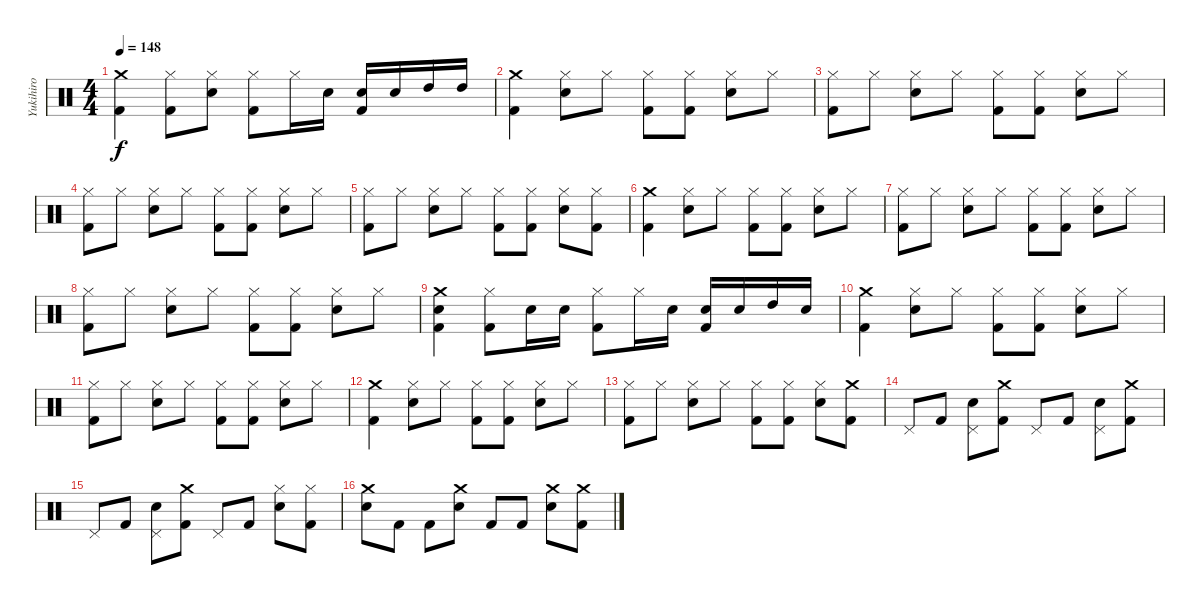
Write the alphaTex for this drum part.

\track ("Yukihiro" "Yukihiro") {instrument percussion}
\staff {score}
\articulation defaults
\ts (4 4)
\tempo 148
\clef neutral
\ks c
("Crash medium (hit)" "Kick (hit) 2").4{dy f} ("Hi-Hat (closed)" "Kick (hit) 2").8 ("Hi-Hat (closed)" "Snare (hit) 2").8 ("Hi-Hat (closed)" "Kick (hit) 2").8 "Hi-Hat (closed)".16 "Snare (hit) 2".16 ("Snare (hit) 2" "Kick (hit) 2").16 "Snare (hit) 2".16 "High Tom (hit)".16 "High Tom (hit)".16 |
("Crash medium (hit)" "Kick (hit) 2").4 ("Hi-Hat (closed)" "Snare (hit) 2").8 "Hi-Hat (closed)".8 ("Hi-Hat (closed)" "Kick (hit) 2").8 ("Hi-Hat (closed)" "Kick (hit) 2").8 ("Hi-Hat (closed)" "Snare (hit) 2").8 "Hi-Hat (closed)".8 |
("Hi-Hat (closed)" "Kick (hit) 2").8 "Hi-Hat (closed)".8 ("Hi-Hat (closed)" "Snare (hit) 2").8 "Hi-Hat (closed)".8 ("Hi-Hat (closed)" "Kick (hit) 2").8 ("Hi-Hat (closed)" "Kick (hit) 2").8 ("Hi-Hat (closed)" "Snare (hit) 2").8 "Hi-Hat (closed)".8 |
("Hi-Hat (closed)" "Kick (hit) 2").8 "Hi-Hat (closed)".8 ("Hi-Hat (closed)" "Snare (hit) 2").8 "Hi-Hat (closed)".8 ("Hi-Hat (closed)" "Kick (hit) 2").8 ("Hi-Hat (closed)" "Kick (hit) 2").8 ("Hi-Hat (closed)" "Snare (hit) 2").8 "Hi-Hat (closed)".8 |
("Hi-Hat (closed)" "Kick (hit) 2").8 "Hi-Hat (closed)".8 ("Hi-Hat (closed)" "Snare (hit) 2").8 "Hi-Hat (closed)".8 ("Hi-Hat (closed)" "Kick (hit) 2").8 ("Hi-Hat (closed)" "Kick (hit) 2").8 ("Hi-Hat (closed)" "Snare (hit) 2").8 ("Hi-Hat (closed)" "Kick (hit) 2").8 |
("Crash medium (hit)" "Kick (hit) 2").4 ("Hi-Hat (closed)" "Snare (hit) 2").8 "Hi-Hat (closed)".8 ("Hi-Hat (closed)" "Kick (hit) 2").8 ("Hi-Hat (closed)" "Kick (hit) 2").8 ("Hi-Hat (closed)" "Snare (hit) 2").8 "Hi-Hat (closed)".8 |
("Hi-Hat (closed)" "Kick (hit) 2").8 "Hi-Hat (closed)".8 ("Hi-Hat (closed)" "Snare (hit) 2").8 "Hi-Hat (closed)".8 ("Hi-Hat (closed)" "Kick (hit) 2").8 ("Hi-Hat (closed)" "Kick (hit) 2").8 ("Hi-Hat (closed)" "Snare (hit) 2").8 "Hi-Hat (closed)".8 |
("Hi-Hat (closed)" "Kick (hit) 2").8 "Hi-Hat (closed)".8 ("Hi-Hat (closed)" "Snare (hit) 2").8 "Hi-Hat (closed)".8 ("Hi-Hat (closed)" "Kick (hit) 2").8 ("Hi-Hat (closed)" "Kick (hit) 2").8 ("Hi-Hat (closed)" "Snare (hit) 2").8 "Hi-Hat (closed)".8 |
("Crash medium (hit)" "Snare (hit) 2" "Kick (hit) 2").4 ("Hi-Hat (closed)" "Kick (hit) 2").8 "Snare (hit) 2".16 "Snare (hit) 2".16 ("Hi-Hat (closed)" "Kick (hit) 2").8 "Hi-Hat (closed)".16 "Snare (hit) 2".16 ("Snare (hit) 2" "Kick (hit) 2").16 "Snare (hit) 2".16 "High Tom (hit)".16 "Snare (hit) 2".16 |
("Crash medium (hit)" "Kick (hit) 2").4 ("Hi-Hat (closed)" "Snare (hit) 2").8 "Hi-Hat (closed)".8 ("Hi-Hat (closed)" "Kick (hit) 2").8 ("Hi-Hat (closed)" "Kick (hit) 2").8 ("Hi-Hat (closed)" "Snare (hit) 2").8 "Hi-Hat (closed)".8 |
("Hi-Hat (closed)" "Kick (hit) 2").8 "Hi-Hat (closed)".8 ("Hi-Hat (closed)" "Snare (hit) 2").8 "Hi-Hat (closed)".8 ("Hi-Hat (closed)" "Kick (hit) 2").8 ("Hi-Hat (closed)" "Kick (hit) 2").8 ("Hi-Hat (closed)" "Snare (hit) 2").8 "Hi-Hat (closed)".8 |
("Crash medium (hit)" "Kick (hit) 2").4 ("Hi-Hat (closed)" "Snare (hit) 2").8 "Hi-Hat (closed)".8 ("Hi-Hat (closed)" "Kick (hit) 2").8 ("Hi-Hat (closed)" "Kick (hit) 2").8 ("Hi-Hat (closed)" "Snare (hit) 2").8 "Hi-Hat (closed)".8 |
("Hi-Hat (closed)" "Kick (hit) 2").8 "Hi-Hat (closed)".8 ("Hi-Hat (closed)" "Snare (hit) 2").8 "Hi-Hat (closed)".8 ("Hi-Hat (closed)" "Kick (hit) 2").8 ("Hi-Hat (closed)" "Kick (hit) 2").8 ("Hi-Hat (closed)" "Snare (hit) 2").8 ("Crash medium (hit)" "Kick (hit) 2").8 |
"Pedal Hi-Hat (hit)".8 "Kick (hit) 2".8 ("Snare (hit) 2" "Pedal Hi-Hat (hit)").8 ("Crash medium (hit)" "Kick (hit) 2").8 "Pedal Hi-Hat (hit)".8 "Kick (hit) 2".8 ("Snare (hit) 2" "Pedal Hi-Hat (hit)").8 ("Crash medium (hit)" "Kick (hit) 2").8 |
"Pedal Hi-Hat (hit)".8 "Kick (hit) 2".8 ("Snare (hit) 2" "Pedal Hi-Hat (hit)").8 ("Crash medium (hit)" "Kick (hit) 2").8 "Pedal Hi-Hat (hit)".8 "Kick (hit) 2".8 ("Hi-Hat (closed)" "Snare (hit) 2").8 ("Hi-Hat (closed)" "Kick (hit) 2").8 |
("Crash medium (hit)" "Snare (hit) 2").8 "Kick (hit) 2".8 "Kick (hit) 2".8 ("Crash medium (hit)" "Snare (hit) 2").8 "Kick (hit) 2".8 "Kick (hit) 2".8 ("Crash medium (hit)" "Snare (hit) 2").8 ("Crash medium (hit)" "Kick (hit) 2").8
